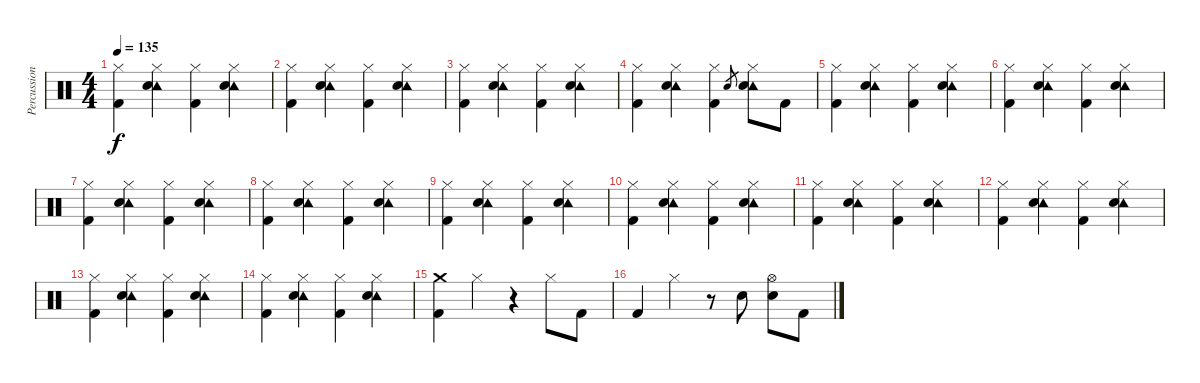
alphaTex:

\track ("Percussion" "Percussion") {instrument percussion}
\staff {score}
\articulation defaults
\ts (4 4)
\tempo 135
\clef neutral
\ks c
("Hi-Hat (closed)" "Kick (hit) 2").4{dy f} ("Hi-Hat (closed)" "Tambourine (hit)" "Electric Snare (hit)").4 ("Hi-Hat (closed)" "Kick (hit) 2").4 ("Hi-Hat (closed)" "Tambourine (hit)" "Electric Snare (hit)").4 |
("Hi-Hat (closed)" "Kick (hit) 2").4 ("Hi-Hat (closed)" "Tambourine (hit)" "Electric Snare (hit)").4 ("Hi-Hat (closed)" "Kick (hit) 2").4 ("Hi-Hat (closed)" "Tambourine (hit)" "Electric Snare (hit)").4 |
("Hi-Hat (closed)" "Kick (hit) 2").4 ("Hi-Hat (closed)" "Tambourine (hit)" "Electric Snare (hit)").4 ("Hi-Hat (closed)" "Kick (hit) 2").4 ("Hi-Hat (closed)" "Tambourine (hit)" "Electric Snare (hit)").4 |
("Hi-Hat (closed)" "Kick (hit) 2").4 ("Hi-Hat (closed)" "Tambourine (hit)" "Electric Snare (hit)").4 ("Hi-Hat (closed)" "Kick (hit) 2").4 "Electric Snare (hit)".8{gr} ("Hi-Hat (closed)" "Tambourine (hit)" "Electric Snare (hit)").8 "Kick (hit) 2".8 |
\section ("" "")
("Hi-Hat (closed)" "Kick (hit) 2").4 ("Hi-Hat (closed)" "Tambourine (hit)" "Electric Snare (hit)").4 ("Hi-Hat (closed)" "Kick (hit) 2").4 ("Hi-Hat (closed)" "Tambourine (hit)" "Electric Snare (hit)").4 |
("Hi-Hat (closed)" "Kick (hit) 2").4 ("Hi-Hat (closed)" "Tambourine (hit)" "Electric Snare (hit)").4 ("Hi-Hat (closed)" "Kick (hit) 2").4 ("Hi-Hat (closed)" "Tambourine (hit)" "Electric Snare (hit)").4 |
("Hi-Hat (closed)" "Kick (hit) 2").4 ("Hi-Hat (closed)" "Tambourine (hit)" "Electric Snare (hit)").4 ("Hi-Hat (closed)" "Kick (hit) 2").4 ("Hi-Hat (closed)" "Tambourine (hit)" "Electric Snare (hit)").4 |
("Hi-Hat (closed)" "Kick (hit) 2").4 ("Hi-Hat (closed)" "Tambourine (hit)" "Electric Snare (hit)").4 ("Hi-Hat (closed)" "Kick (hit) 2").4 ("Hi-Hat (closed)" "Tambourine (hit)" "Electric Snare (hit)").4 |
("Hi-Hat (closed)" "Kick (hit) 2").4 ("Hi-Hat (closed)" "Tambourine (hit)" "Electric Snare (hit)").4 ("Hi-Hat (closed)" "Kick (hit) 2").4 ("Hi-Hat (closed)" "Tambourine (hit)" "Electric Snare (hit)").4 |
("Hi-Hat (closed)" "Kick (hit) 2").4 ("Hi-Hat (closed)" "Tambourine (hit)" "Electric Snare (hit)").4 ("Hi-Hat (closed)" "Kick (hit) 2").4 ("Hi-Hat (closed)" "Tambourine (hit)" "Electric Snare (hit)").4 |
("Hi-Hat (closed)" "Kick (hit) 2").4 ("Hi-Hat (closed)" "Tambourine (hit)" "Electric Snare (hit)").4 ("Hi-Hat (closed)" "Kick (hit) 2").4 ("Hi-Hat (closed)" "Tambourine (hit)" "Electric Snare (hit)").4 |
("Hi-Hat (closed)" "Kick (hit) 2").4 ("Hi-Hat (closed)" "Tambourine (hit)" "Electric Snare (hit)").4 ("Hi-Hat (closed)" "Kick (hit) 2").4 ("Hi-Hat (closed)" "Tambourine (hit)" "Electric Snare (hit)").4 |
("Hi-Hat (closed)" "Kick (hit) 2").4 ("Hi-Hat (closed)" "Tambourine (hit)" "Electric Snare (hit)").4 ("Hi-Hat (closed)" "Kick (hit) 2").4 ("Hi-Hat (closed)" "Tambourine (hit)" "Electric Snare (hit)").4 |
("Hi-Hat (closed)" "Kick (hit) 2").4 ("Hi-Hat (closed)" "Tambourine (hit)" "Electric Snare (hit)").4 ("Hi-Hat (closed)" "Kick (hit) 2").4 ("Hi-Hat (closed)" "Tambourine (hit)" "Electric Snare (hit)").4 |
("Crash medium (hit)" "Kick (hit) 2").4 "Hi-Hat (closed)".4 r.4 "Hi-Hat (closed)".8 "Kick (hit) 2".8 |
"Kick (hit) 2".4 "Hi-Hat (closed)".4 r.8 "Electric Snare (hit)".8 ("Hi-Hat (open)" "Electric Snare (hit)").8 "Kick (hit) 2".8
